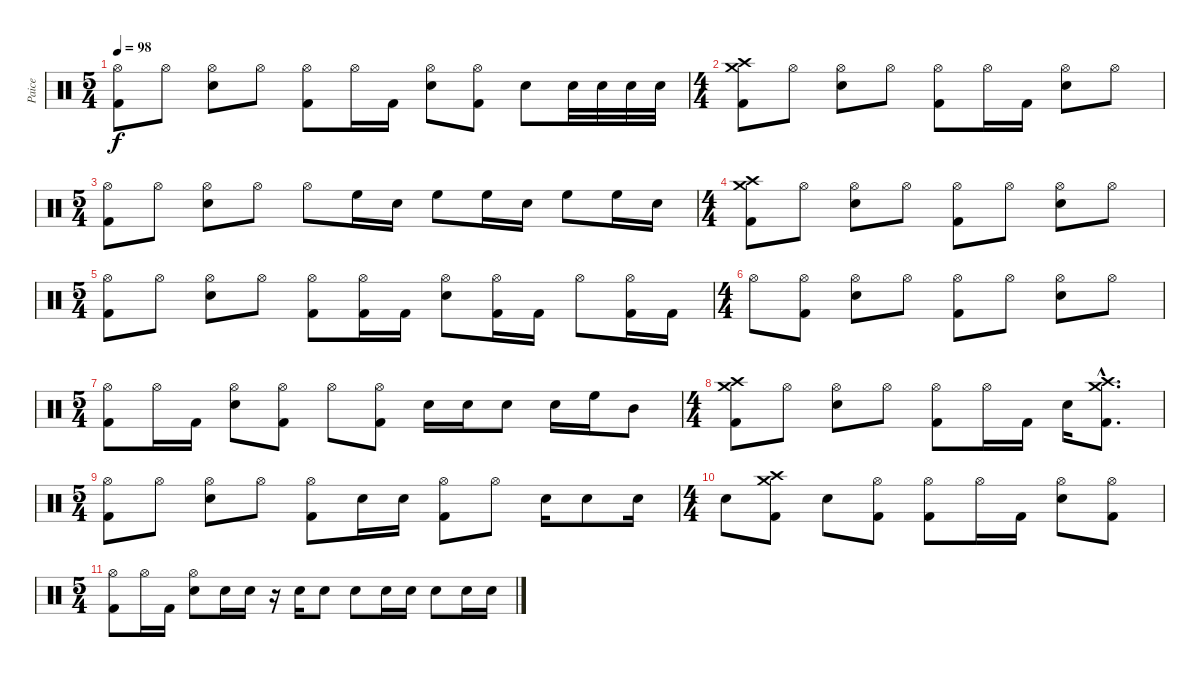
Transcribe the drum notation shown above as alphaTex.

\track ("Paice" "Paice") {instrument percussion}
\staff {score}
\articulation defaults
\ts (5 4)
\tempo 98
\clef neutral
\ks c
("Hi-Hat (open)" "Kick (hit) 2").8{dy f} "Hi-Hat (open)".8 ("Hi-Hat (open)" "Electric Snare (hit)").8 "Hi-Hat (open)".8 ("Hi-Hat (open)" "Kick (hit) 2").8 "Hi-Hat (open)".16 "Kick (hit) 2".16 ("Hi-Hat (open)" "Electric Snare (hit)").8 ("Hi-Hat (open)" "Kick (hit) 2").8 "Electric Snare (hit)".8 "Electric Snare (hit)".32 "Electric Snare (hit)".32 "Electric Snare (hit)".32 "Electric Snare (hit)".32 |
\ts (4 4)
("Crash high (hit)" "Crash medium (hit)" "Kick (hit) 2").8 "Hi-Hat (open)".8 ("Hi-Hat (open)" "Electric Snare (hit)").8 "Hi-Hat (open)".8 ("Hi-Hat (open)" "Kick (hit) 2").8 "Hi-Hat (open)".16 "Kick (hit) 2".16 ("Hi-Hat (open)" "Electric Snare (hit)").8 "Hi-Hat (open)".8 |
\ts (5 4)
("Hi-Hat (open)" "Kick (hit) 2").8 "Hi-Hat (open)".8 ("Hi-Hat (open)" "Electric Snare (hit)").8 "Hi-Hat (open)".8 "Hi-Hat (open)".8 "High Floor Tom (hit)".16 "Electric Snare (hit)".16 "High Floor Tom (hit)".8 "High Floor Tom (hit)".16 "Electric Snare (hit)".16 "High Floor Tom (hit)".8 "High Floor Tom (hit)".16 "Electric Snare (hit)".16 |
\ts (4 4)
("Crash high (hit)" "Crash medium (hit)" "Kick (hit) 2").8 "Hi-Hat (open)".8 ("Hi-Hat (open)" "Electric Snare (hit)").8 "Hi-Hat (open)".8 ("Hi-Hat (open)" "Kick (hit) 2").8 "Hi-Hat (open)".8 ("Hi-Hat (open)" "Electric Snare (hit)").8 "Hi-Hat (open)".8 |
\ts (5 4)
("Hi-Hat (open)" "Kick (hit) 2").8 "Hi-Hat (open)".8 ("Hi-Hat (open)" "Electric Snare (hit)").8 "Hi-Hat (open)".8 ("Hi-Hat (open)" "Kick (hit) 2").8 ("Hi-Hat (open)" "Kick (hit) 2").16 "Kick (hit) 2".16 ("Hi-Hat (open)" "Electric Snare (hit)").8 ("Hi-Hat (open)" "Kick (hit) 2").16 "Kick (hit) 2".16 "Hi-Hat (open)".8 ("Hi-Hat (open)" "Kick (hit) 2").16 "Kick (hit) 2".16 |
\ts (4 4)
"Hi-Hat (open)".8 ("Hi-Hat (open)" "Kick (hit) 2").8 ("Hi-Hat (open)" "Electric Snare (hit)").8 "Hi-Hat (open)".8 ("Hi-Hat (open)" "Kick (hit) 2").8 "Hi-Hat (open)".8 ("Hi-Hat (open)" "Electric Snare (hit)").8 "Hi-Hat (open)".8 |
\ts (5 4)
("Hi-Hat (open)" "Kick (hit) 2").8 "Hi-Hat (open)".16 "Kick (hit) 2".16 ("Hi-Hat (open)" "Electric Snare (hit)").8 ("Hi-Hat (open)" "Kick (hit) 2").8 "Hi-Hat (open)".8 ("Hi-Hat (open)" "Kick (hit) 2").8 "Electric Snare (hit)".16 "Electric Snare (hit)".16 "Electric Snare (hit)".8 "Electric Snare (hit)".16 "High Floor Tom (hit)".16 "Mid Tom (hit)".8 |
\ts (4 4)
("Crash high (hit)" "Crash medium (hit)" "Kick (hit) 2").8 "Hi-Hat (open)".8 ("Hi-Hat (open)" "Electric Snare (hit)").8 "Hi-Hat (open)".8 ("Hi-Hat (open)" "Kick (hit) 2").8 "Hi-Hat (open)".16 "Kick (hit) 2".16 "Electric Snare (hit)".16 ("Crash high (hit)"{hac} "Crash medium (hit)"{hac} "Kick (hit) 2"{hac}).8{d} |
\ts (5 4)
("Hi-Hat (open)" "Kick (hit) 2").8 "Hi-Hat (open)".8 ("Hi-Hat (open)" "Electric Snare (hit)").8 "Hi-Hat (open)".8 ("Hi-Hat (open)" "Kick (hit) 2").8 "Electric Snare (hit)".16 "Electric Snare (hit)".16 ("Hi-Hat (open)" "Kick (hit) 2").8 "Hi-Hat (open)".8 "Electric Snare (hit)".16 "Electric Snare (hit)".8 "Electric Snare (hit)".16 |
\ts (4 4)
"Electric Snare (hit)".8 ("Crash high (hit)" "Crash medium (hit)" "Kick (hit) 2").8 "Electric Snare (hit)".8 ("Hi-Hat (open)" "Kick (hit) 2").8 ("Hi-Hat (open)" "Kick (hit) 2").8 "Hi-Hat (open)".16 "Kick (hit) 2".16 ("Hi-Hat (open)" "Electric Snare (hit)").8 ("Hi-Hat (open)" "Kick (hit) 2").8 |
\ts (5 4)
("Hi-Hat (open)" "Kick (hit) 2").8 "Hi-Hat (open)".16 "Kick (hit) 2".16 ("Hi-Hat (open)" "Electric Snare (hit)").8 "Electric Snare (hit)".16 "Electric Snare (hit)".16 r.16 "Electric Snare (hit)".16 "Electric Snare (hit)".8 "Electric Snare (hit)".8 "Electric Snare (hit)".16 "Electric Snare (hit)".16 "Electric Snare (hit)".8 "Electric Snare (hit)".16 "Electric Snare (hit)".16
